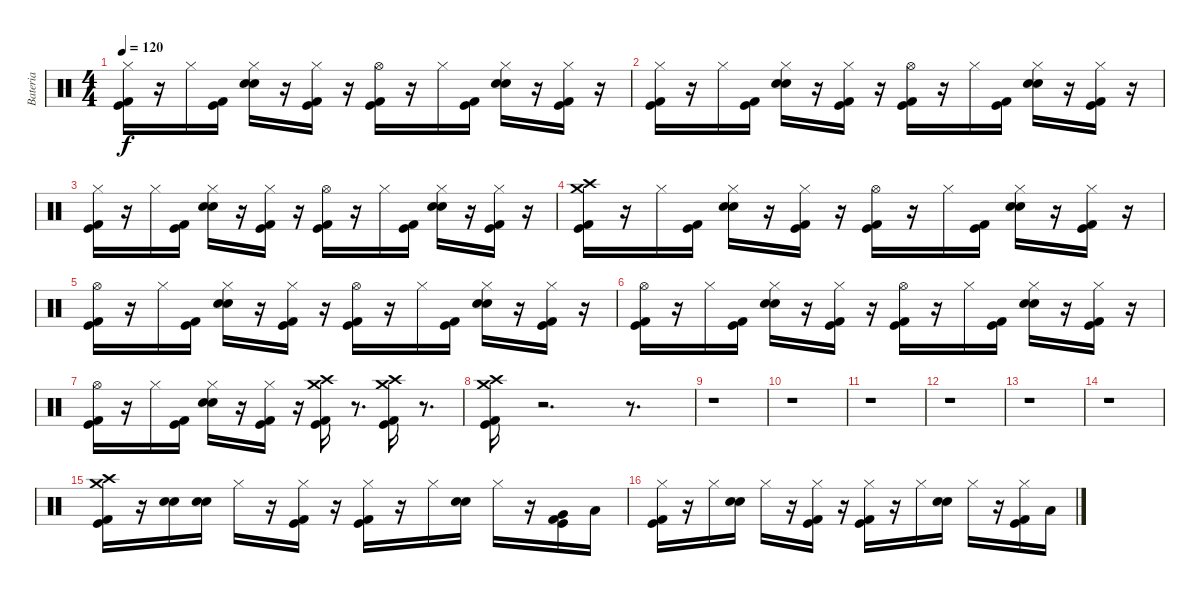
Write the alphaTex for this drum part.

\track ("Bateria" "Bateria") {instrument percussion}
\staff {score}
\articulation defaults
\ts (4 4)
\tempo 120
\clef neutral
\ks c
("Hi-Hat (closed)" "Kick (hit) 2" "Kick (hit)").16{dy f} r.16 "Hi-Hat (closed)".16 ("Kick (hit) 2" "Kick (hit)").16 ("Hi-Hat (closed)" "Electric Snare (hit)" "Snare (hit) 2").16 r.16 ("Hi-Hat (closed)" "Kick (hit) 2" "Kick (hit)").16 r.16 ("Hi-Hat (open)" "Kick (hit) 2" "Kick (hit)").16 r.16 "Hi-Hat (closed)".16 ("Kick (hit) 2" "Kick (hit)").16 ("Hi-Hat (closed)" "Electric Snare (hit)" "Snare (hit) 2").16 r.16 ("Hi-Hat (closed)" "Kick (hit) 2" "Kick (hit)").16 r.16 |
("Hi-Hat (closed)" "Kick (hit) 2" "Kick (hit)").16 r.16 "Hi-Hat (closed)".16 ("Kick (hit) 2" "Kick (hit)").16 ("Hi-Hat (closed)" "Electric Snare (hit)" "Snare (hit) 2").16 r.16 ("Hi-Hat (closed)" "Kick (hit) 2" "Kick (hit)").16 r.16 ("Hi-Hat (open)" "Kick (hit) 2" "Kick (hit)").16 r.16 "Hi-Hat (closed)".16 ("Kick (hit) 2" "Kick (hit)").16 ("Hi-Hat (closed)" "Electric Snare (hit)" "Snare (hit) 2").16 r.16 ("Hi-Hat (closed)" "Kick (hit) 2" "Kick (hit)").16 r.16 |
("Hi-Hat (closed)" "Kick (hit) 2" "Kick (hit)").16 r.16 "Hi-Hat (closed)".16 ("Kick (hit) 2" "Kick (hit)").16 ("Hi-Hat (closed)" "Electric Snare (hit)" "Snare (hit) 2").16 r.16 ("Hi-Hat (closed)" "Kick (hit) 2" "Kick (hit)").16 r.16 ("Hi-Hat (open)" "Kick (hit) 2" "Kick (hit)").16 r.16 "Hi-Hat (closed)".16 ("Kick (hit) 2" "Kick (hit)").16 ("Hi-Hat (closed)" "Electric Snare (hit)" "Snare (hit) 2").16 r.16 ("Hi-Hat (closed)" "Kick (hit) 2" "Kick (hit)").16 r.16 |
("Crash high (hit)" "Crash medium (hit)" "Kick (hit) 2" "Kick (hit)").16 r.16 "Hi-Hat (closed)".16 ("Kick (hit) 2" "Kick (hit)").16 ("Hi-Hat (closed)" "Electric Snare (hit)" "Snare (hit) 2").16 r.16 ("Hi-Hat (closed)" "Kick (hit) 2" "Kick (hit)").16 r.16 ("Hi-Hat (open)" "Kick (hit) 2" "Kick (hit)").16 r.16 "Hi-Hat (closed)".16 ("Kick (hit) 2" "Kick (hit)").16 ("Hi-Hat (closed)" "Electric Snare (hit)" "Snare (hit) 2").16 r.16 ("Hi-Hat (closed)" "Kick (hit) 2" "Kick (hit)").16 r.16 |
("Hi-Hat (open)" "Kick (hit) 2" "Kick (hit)").16 r.16 "Hi-Hat (closed)".16 ("Kick (hit) 2" "Kick (hit)").16 ("Hi-Hat (closed)" "Electric Snare (hit)" "Snare (hit) 2").16 r.16 ("Hi-Hat (closed)" "Kick (hit) 2" "Kick (hit)").16 r.16 ("Hi-Hat (open)" "Kick (hit) 2" "Kick (hit)").16 r.16 "Hi-Hat (closed)".16 ("Kick (hit) 2" "Kick (hit)").16 ("Hi-Hat (closed)" "Electric Snare (hit)" "Snare (hit) 2").16 r.16 ("Hi-Hat (closed)" "Kick (hit) 2" "Kick (hit)").16 r.16 |
("Hi-Hat (open)" "Kick (hit) 2" "Kick (hit)").16 r.16 "Hi-Hat (closed)".16 ("Kick (hit) 2" "Kick (hit)").16 ("Hi-Hat (closed)" "Electric Snare (hit)" "Snare (hit) 2").16 r.16 ("Hi-Hat (closed)" "Kick (hit) 2" "Kick (hit)").16 r.16 ("Hi-Hat (open)" "Kick (hit) 2" "Kick (hit)").16 r.16 "Hi-Hat (closed)".16 ("Kick (hit) 2" "Kick (hit)").16 ("Hi-Hat (closed)" "Electric Snare (hit)" "Snare (hit) 2").16 r.16 ("Hi-Hat (closed)" "Kick (hit) 2" "Kick (hit)").16 r.16 |
("Hi-Hat (open)" "Kick (hit) 2" "Kick (hit)").16 r.16 "Hi-Hat (closed)".16 ("Kick (hit) 2" "Kick (hit)").16 ("Hi-Hat (closed)" "Electric Snare (hit)" "Snare (hit) 2").16 r.16 ("Hi-Hat (closed)" "Kick (hit) 2" "Kick (hit)").16 r.16 ("Crash high (hit)" "Crash medium (hit)" "Kick (hit) 2" "Kick (hit)").16 r.8{d} ("Crash high (hit)" "Crash medium (hit)" "Kick (hit) 2" "Kick (hit)").16 r.8{d} |
("Crash high (hit)" "Crash medium (hit)" "Kick (hit) 2" "Kick (hit)").16 r.2{d} r.8{d} |
r.1 |
r.1 |
r.1 |
r.1 |
r.1 |
r.1 |
("Crash high (hit)" "Crash medium (hit)" "Kick (hit) 2" "Kick (hit)").16 r.16 ("Electric Snare (hit)" "Snare (hit) 2").16 ("Electric Snare (hit)" "Snare (hit) 2").16 "Hi-Hat (closed)".16 r.16 ("Kick (hit) 2" "Kick (hit)" "Hi-Hat (closed)").16 r.16 ("Kick (hit) 2" "Kick (hit)" "Hi-Hat (closed)").16 r.16 "Hi-Hat (closed)".16 ("Electric Snare (hit)" "Snare (hit) 2").16 "Hi-Hat (closed)".16 r.16 ("Very Low Tom (hit)" "Kick (hit) 2" "Kick (hit)").16 "Low Floor Tom (hit)".16 |
("Hi-Hat (closed)" "Kick (hit) 2" "Kick (hit)").16 r.16 "Hi-Hat (closed)".16 ("Electric Snare (hit)" "Snare (hit) 2").16 "Hi-Hat (closed)".16 r.16 ("Kick (hit) 2" "Kick (hit)" "Hi-Hat (closed)").16 r.16 ("Kick (hit) 2" "Kick (hit)" "Hi-Hat (closed)").16 r.16 "Hi-Hat (closed)".16 ("Electric Snare (hit)" "Snare (hit) 2").16 "Hi-Hat (closed)".16 r.16 ("Kick (hit) 2" "Kick (hit)" "Hi-Hat (closed)").16 "Low Floor Tom (hit)".16
